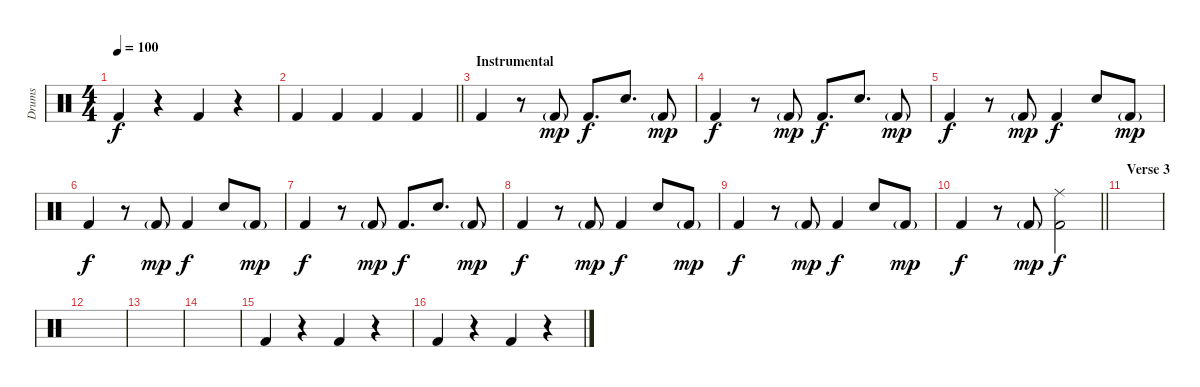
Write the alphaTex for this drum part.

\track ("Drums" "Drums") {instrument percussion}
\staff {score}
\articulation defaults
\ts (4 4)
\tempo 100
\clef neutral
\ks c "Kick (hit) 2".4{dy f}
r.4 "Kick (hit) 2".4 r.4 |
\barLineRight lightlight "Kick (hit) 2".4 "Kick (hit) 2".4 "Kick (hit) 2".4 "Kick (hit) 2".4
|
\section ("" "Instrumental")
"Kick (hit) 2".4 r.8 "Kick (hit) 2"{g}.8{dy mp} "Kick (hit) 2".8{d dy f} "Snare (hit) 2".8{d} "Kick (hit) 2"{g}.8{dy mp} |
"Kick (hit) 2".4{dy f} r.8 "Kick (hit) 2"{g}.8{dy mp} "Kick (hit) 2".8{d dy f} "Snare (hit) 2".8{d} "Kick (hit) 2"{g}.8{dy mp} |
"Kick (hit) 2".4{dy f} r.8 "Kick (hit) 2"{g}.8{dy mp} "Kick (hit) 2".4{dy f} "Snare (hit) 2".8 "Kick (hit) 2"{g}.8{dy mp} |
"Kick (hit) 2".4{dy f} r.8 "Kick (hit) 2"{g}.8{dy mp} "Kick (hit) 2".4{dy f} "Snare (hit) 2".8 "Kick (hit) 2"{g}.8{dy mp} |
"Kick (hit) 2".4{dy f} r.8 "Kick (hit) 2"{g}.8{dy mp} "Kick (hit) 2".8{d dy f} "Snare (hit) 2".8{d} "Kick (hit) 2"{g}.8{dy mp} |
"Kick (hit) 2".4{dy f} r.8 "Kick (hit) 2"{g}.8{dy mp} "Kick (hit) 2".4{dy f} "Snare (hit) 2".8 "Kick (hit) 2"{g}.8{dy mp} |
"Kick (hit) 2".4{dy f} r.8 "Kick (hit) 2"{g}.8{dy mp} "Kick (hit) 2".4{dy f} "Snare (hit) 2".8 "Kick (hit) 2"{g}.8{dy mp} |
\barLineRight lightlight "Kick (hit) 2".4{dy f}
r.8 "Kick (hit) 2"{g}.8{dy mp} ("Ride (middle)" "Kick (hit) 2").2{dy f} |
\section ("" "Verse 3")
|
|
|
|
"Kick (hit) 2".4 r.4 "Kick (hit) 2".4 r.4 |
"Kick (hit) 2".4 r.4 "Kick (hit) 2".4 r.4
